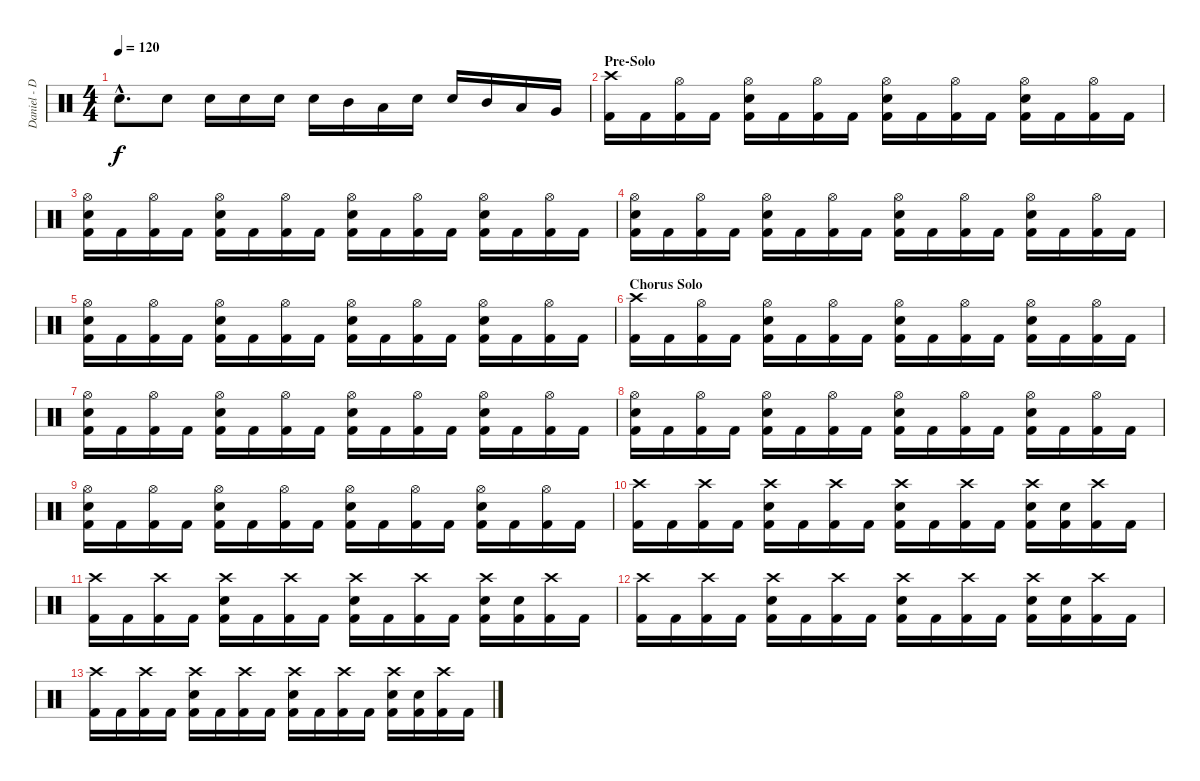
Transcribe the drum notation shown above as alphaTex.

\track ("Daniel - Drums" "Daniel - D") {instrument percussion}
\staff {score}
\articulation defaults
\ts (4 4)
\tempo 120
\clef neutral
\ks c "Electric Snare (hit)"{hac}.8{d dy f} "Electric Snare (hit)".8 "Electric Snare (hit)".16 "Electric Snare (hit)".16 "Electric Snare (hit)".16 "Electric Snare (hit)".16 "Mid Tom (hit)".16 "Low Tom (hit)".16 "Electric Snare (hit)".16 "Electric Snare (hit)".16 "Mid Tom (hit)".16 "Low Tom (hit)".16 "Very Low Tom (hit)".16
|
\section ("" "Pre-Solo")
("Crash high (hit)" "Kick (hit) 2").16 "Kick (hit) 2".16 ("Hi-Hat (open)" "Kick (hit) 2").16 "Kick (hit) 2".16 ("Hi-Hat (open)" "Electric Snare (hit)" "Kick (hit) 2").16 "Kick (hit) 2".16 ("Hi-Hat (open)" "Kick (hit) 2").16 "Kick (hit) 2".16 ("Hi-Hat (open)" "Electric Snare (hit)" "Kick (hit) 2").16 "Kick (hit) 2".16 ("Hi-Hat (open)" "Kick (hit) 2").16 "Kick (hit) 2".16 ("Hi-Hat (open)" "Electric Snare (hit)" "Kick (hit) 2").16 "Kick (hit) 2".16 ("Hi-Hat (open)" "Kick (hit) 2").16 "Kick (hit) 2".16 |
("Hi-Hat (open)" "Electric Snare (hit)" "Kick (hit) 2").16 "Kick (hit) 2".16 ("Hi-Hat (open)" "Kick (hit) 2").16 "Kick (hit) 2".16 ("Hi-Hat (open)" "Electric Snare (hit)" "Kick (hit) 2").16 "Kick (hit) 2".16 ("Hi-Hat (open)" "Kick (hit) 2").16 "Kick (hit) 2".16 ("Hi-Hat (open)" "Electric Snare (hit)" "Kick (hit) 2").16 "Kick (hit) 2".16 ("Hi-Hat (open)" "Kick (hit) 2").16 "Kick (hit) 2".16 ("Hi-Hat (open)" "Electric Snare (hit)" "Kick (hit) 2").16 "Kick (hit) 2".16 ("Hi-Hat (open)" "Kick (hit) 2").16 "Kick (hit) 2".16 |
("Hi-Hat (open)" "Electric Snare (hit)" "Kick (hit) 2").16 "Kick (hit) 2".16 ("Hi-Hat (open)" "Kick (hit) 2").16 "Kick (hit) 2".16 ("Hi-Hat (open)" "Electric Snare (hit)" "Kick (hit) 2").16 "Kick (hit) 2".16 ("Hi-Hat (open)" "Kick (hit) 2").16 "Kick (hit) 2".16 ("Hi-Hat (open)" "Electric Snare (hit)" "Kick (hit) 2").16 "Kick (hit) 2".16 ("Hi-Hat (open)" "Kick (hit) 2").16 "Kick (hit) 2".16 ("Hi-Hat (open)" "Electric Snare (hit)" "Kick (hit) 2").16 "Kick (hit) 2".16 ("Hi-Hat (open)" "Kick (hit) 2").16 "Kick (hit) 2".16 |
("Hi-Hat (open)" "Electric Snare (hit)" "Kick (hit) 2").16 "Kick (hit) 2".16 ("Hi-Hat (open)" "Kick (hit) 2").16 "Kick (hit) 2".16 ("Hi-Hat (open)" "Electric Snare (hit)" "Kick (hit) 2").16 "Kick (hit) 2".16 ("Hi-Hat (open)" "Kick (hit) 2").16 "Kick (hit) 2".16 ("Hi-Hat (open)" "Electric Snare (hit)" "Kick (hit) 2").16 "Kick (hit) 2".16 ("Hi-Hat (open)" "Kick (hit) 2").16 "Kick (hit) 2".16 ("Hi-Hat (open)" "Electric Snare (hit)" "Kick (hit) 2").16 "Kick (hit) 2".16 ("Hi-Hat (open)" "Kick (hit) 2").16 "Kick (hit) 2".16 |
\section ("" "Chorus Solo")
("Crash high (hit)" "Kick (hit) 2").16 "Kick (hit) 2".16 ("Hi-Hat (open)" "Kick (hit) 2").16 "Kick (hit) 2".16 ("Hi-Hat (open)" "Electric Snare (hit)" "Kick (hit) 2").16 "Kick (hit) 2".16 ("Hi-Hat (open)" "Kick (hit) 2").16 "Kick (hit) 2".16 ("Hi-Hat (open)" "Electric Snare (hit)" "Kick (hit) 2").16 "Kick (hit) 2".16 ("Hi-Hat (open)" "Kick (hit) 2").16 "Kick (hit) 2".16 ("Hi-Hat (open)" "Electric Snare (hit)" "Kick (hit) 2").16 "Kick (hit) 2".16 ("Hi-Hat (open)" "Kick (hit) 2").16 "Kick (hit) 2".16 |
("Hi-Hat (open)" "Electric Snare (hit)" "Kick (hit) 2").16 "Kick (hit) 2".16 ("Hi-Hat (open)" "Kick (hit) 2").16 "Kick (hit) 2".16 ("Hi-Hat (open)" "Electric Snare (hit)" "Kick (hit) 2").16 "Kick (hit) 2".16 ("Hi-Hat (open)" "Kick (hit) 2").16 "Kick (hit) 2".16 ("Hi-Hat (open)" "Electric Snare (hit)" "Kick (hit) 2").16 "Kick (hit) 2".16 ("Hi-Hat (open)" "Kick (hit) 2").16 "Kick (hit) 2".16 ("Hi-Hat (open)" "Electric Snare (hit)" "Kick (hit) 2").16 "Kick (hit) 2".16 ("Hi-Hat (open)" "Kick (hit) 2").16 "Kick (hit) 2".16 |
("Hi-Hat (open)" "Electric Snare (hit)" "Kick (hit) 2").16 "Kick (hit) 2".16 ("Hi-Hat (open)" "Kick (hit) 2").16 "Kick (hit) 2".16 ("Hi-Hat (open)" "Electric Snare (hit)" "Kick (hit) 2").16 "Kick (hit) 2".16 ("Hi-Hat (open)" "Kick (hit) 2").16 "Kick (hit) 2".16 ("Hi-Hat (open)" "Electric Snare (hit)" "Kick (hit) 2").16 "Kick (hit) 2".16 ("Hi-Hat (open)" "Kick (hit) 2").16 "Kick (hit) 2".16 ("Hi-Hat (open)" "Electric Snare (hit)" "Kick (hit) 2").16 "Kick (hit) 2".16 ("Hi-Hat (open)" "Kick (hit) 2").16 "Kick (hit) 2".16 |
("Hi-Hat (open)" "Electric Snare (hit)" "Kick (hit) 2").16{volume 13} "Kick (hit) 2".16 ("Hi-Hat (open)" "Kick (hit) 2").16 "Kick (hit) 2".16 ("Hi-Hat (open)" "Electric Snare (hit)" "Kick (hit) 2").16 "Kick (hit) 2".16 ("Hi-Hat (open)" "Kick (hit) 2").16 "Kick (hit) 2".16 ("Hi-Hat (open)" "Electric Snare (hit)" "Kick (hit) 2").16 "Kick (hit) 2".16 ("Hi-Hat (open)" "Kick (hit) 2").16 "Kick (hit) 2".16 ("Hi-Hat (open)" "Electric Snare (hit)" "Kick (hit) 2").16 "Kick (hit) 2".16 ("Hi-Hat (open)" "Kick (hit) 2").16 "Kick (hit) 2".16 |
("Crash high (hit)" "Kick (hit) 2").16{volume 8} "Kick (hit) 2".16 ("Crash high (hit)" "Kick (hit) 2").16 "Kick (hit) 2".16 ("Crash high (hit)" "Electric Snare (hit)" "Kick (hit) 2").16 "Kick (hit) 2".16 ("Crash high (hit)" "Kick (hit) 2").16 "Kick (hit) 2".16 ("Crash high (hit)" "Electric Snare (hit)" "Kick (hit) 2").16 "Kick (hit) 2".16 ("Crash high (hit)" "Kick (hit) 2").16 "Kick (hit) 2".16 ("Crash high (hit)" "Electric Snare (hit)" "Kick (hit) 2").16 ("Electric Snare (hit)" "Kick (hit) 2").16 ("Crash high (hit)" "Kick (hit) 2").16 "Kick (hit) 2".16 |
("Crash high (hit)" "Kick (hit) 2").16{volume 4} "Kick (hit) 2".16 ("Crash high (hit)" "Kick (hit) 2").16 "Kick (hit) 2".16 ("Crash high (hit)" "Electric Snare (hit)" "Kick (hit) 2").16 "Kick (hit) 2".16 ("Crash high (hit)" "Kick (hit) 2").16 "Kick (hit) 2".16 ("Crash high (hit)" "Electric Snare (hit)" "Kick (hit) 2").16 "Kick (hit) 2".16 ("Crash high (hit)" "Kick (hit) 2").16 "Kick (hit) 2".16 ("Crash high (hit)" "Electric Snare (hit)" "Kick (hit) 2").16 ("Electric Snare (hit)" "Kick (hit) 2").16 ("Crash high (hit)" "Kick (hit) 2").16 "Kick (hit) 2".16 |
("Crash high (hit)" "Kick (hit) 2").16{volume 0} "Kick (hit) 2".16 ("Crash high (hit)" "Kick (hit) 2").16 "Kick (hit) 2".16 ("Crash high (hit)" "Electric Snare (hit)" "Kick (hit) 2").16 "Kick (hit) 2".16 ("Crash high (hit)" "Kick (hit) 2").16 "Kick (hit) 2".16 ("Crash high (hit)" "Electric Snare (hit)" "Kick (hit) 2").16 "Kick (hit) 2".16 ("Crash high (hit)" "Kick (hit) 2").16 "Kick (hit) 2".16 ("Crash high (hit)" "Electric Snare (hit)" "Kick (hit) 2").16 ("Electric Snare (hit)" "Kick (hit) 2").16 ("Crash high (hit)" "Kick (hit) 2").16 "Kick (hit) 2".16 |
("Crash high (hit)" "Kick (hit) 2").16{volume 0} "Kick (hit) 2".16 ("Crash high (hit)" "Kick (hit) 2").16 "Kick (hit) 2".16 ("Crash high (hit)" "Electric Snare (hit)" "Kick (hit) 2").16 "Kick (hit) 2".16 ("Crash high (hit)" "Kick (hit) 2").16 "Kick (hit) 2".16 ("Crash high (hit)" "Electric Snare (hit)" "Kick (hit) 2").16 "Kick (hit) 2".16 ("Crash high (hit)" "Kick (hit) 2").16 "Kick (hit) 2".16 ("Crash high (hit)" "Electric Snare (hit)" "Kick (hit) 2").16 ("Electric Snare (hit)" "Kick (hit) 2").16 ("Crash high (hit)" "Kick (hit) 2").16 "Kick (hit) 2".16
